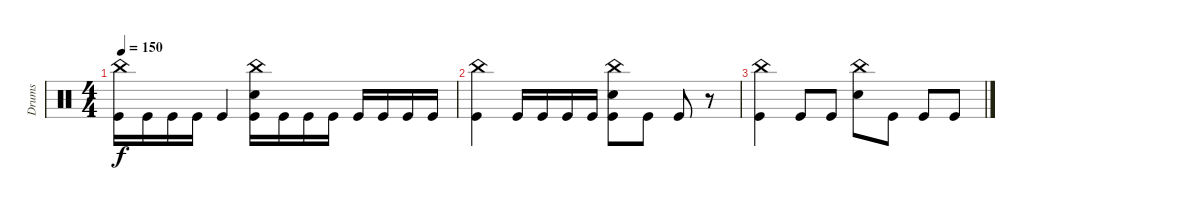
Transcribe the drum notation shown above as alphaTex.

\track ("Drums" "Drums") {instrument percussion}
\staff {score}
\articulation defaults
\ts (4 4)
\tempo 150
\clef neutral
\ks c
("China (hit)" "Kick (hit)").16{dy f} "Kick (hit)".16 "Kick (hit)".16 "Kick (hit)".16 "Kick (hit)".4 ("Snare (hit) 2" "China (hit)" "Kick (hit)").16 "Kick (hit)".16 "Kick (hit)".16 "Kick (hit)".16 "Kick (hit)".16 "Kick (hit)".16 "Kick (hit)".16 "Kick (hit)".16 |
("China (hit)" "Kick (hit)").4 "Kick (hit)".16 "Kick (hit)".16 "Kick (hit)".16 "Kick (hit)".16 ("China (hit)" "Snare (hit) 2" "Kick (hit)").8 "Kick (hit)".8 "Kick (hit)".8 r.8 |
("China (hit)" "Kick (hit)").4 "Kick (hit)".8 "Kick (hit)".8 ("Snare (hit) 2" "China (hit)").8 "Kick (hit)".8 "Kick (hit)".8 "Kick (hit)".8
